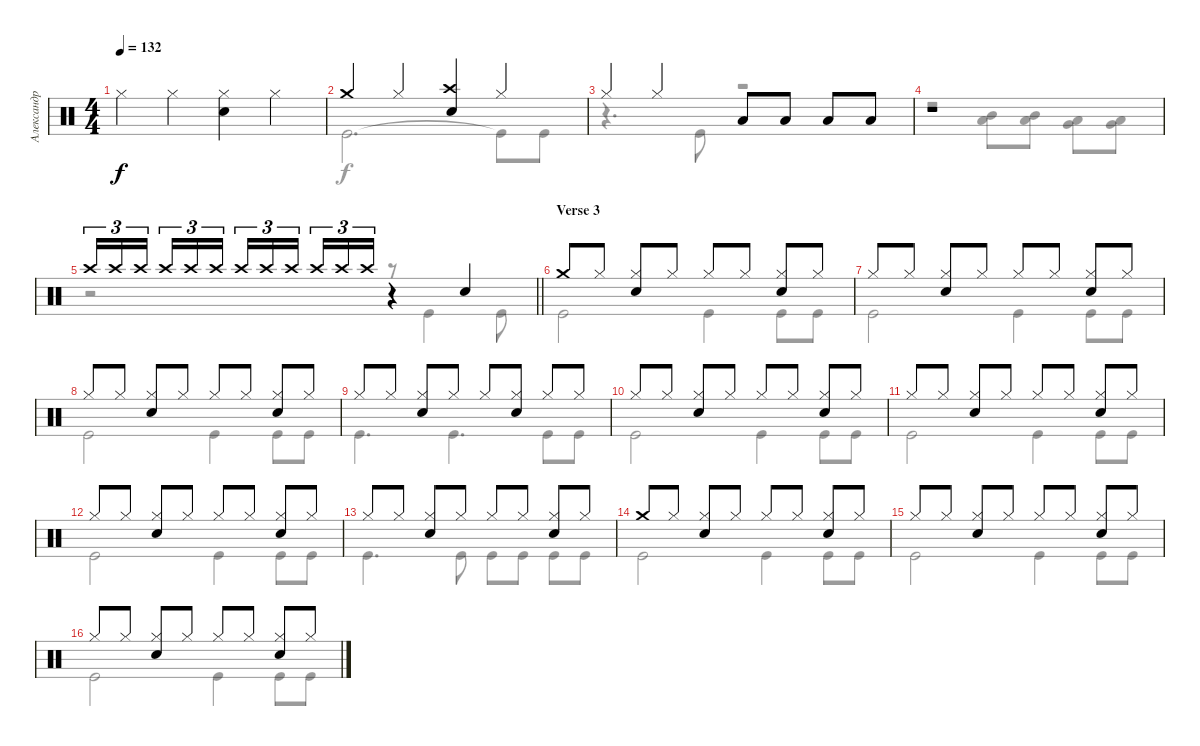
\track ("Александр Манякин" "Александр ") {instrument percussion}
\staff {score}
\articulation defaults
\voice
\ts (4 4)
\tempo 132
\clef neutral
\ks c "Hi-Hat (closed)".4{dy f} "Hi-Hat (closed)".4
("Hi-Hat (closed)" "Snare (hit) 2").4 "Hi-Hat (closed)".4 |
"Crash medium (hit)".4 "Hi-Hat (closed)".4 ("Crash high (hit)" "Snare (hit) 2").4 "Hi-Hat (closed)".4 |
"Hi-Hat (closed)".4 "Hi-Hat (closed)".4 "Low Tom (hit)".8 "Low Tom (hit)".8 "Low Tom (hit)".8 "Low Tom (hit)".8 |
r.1 |
\barLineRight lightlight "Crash high (hit)".16{tu (3 2)} "Crash high (hit)".16{tu (3 2)} "Crash high (hit)".16{tu (3 2) beam splitsecondary} "Crash high (hit)".16{tu (3 2)} "Crash high (hit)".16{tu (3 2)} "Crash high (hit)".16{tu (3 2)} "Crash high (hit)".16{tu (3 2)} "Crash high (hit)".16{tu (3 2)} "Crash high (hit)".16{tu (3 2) beam splitsecondary} "Crash high (hit)".16{tu (3 2)} "Crash high (hit)".16{tu (3 2)} "Crash high (hit)".16{tu (3 2)}
r.4 "Snare (hit) 2".4 |
\section ("" "Verse 3")
"Crash medium (hit)".8 "Hi-Hat (closed)".8 ("Hi-Hat (closed)" "Snare (hit) 2").8 "Hi-Hat (closed)".8 "Hi-Hat (closed)".8 "Hi-Hat (closed)".8 ("Hi-Hat (closed)" "Snare (hit) 2").8 "Hi-Hat (closed)".8 |
"Hi-Hat (closed)".8 "Hi-Hat (closed)".8 ("Hi-Hat (closed)" "Snare (hit) 2").8 "Hi-Hat (closed)".8 "Hi-Hat (closed)".8 "Hi-Hat (closed)".8 ("Hi-Hat (closed)" "Snare (hit) 2").8 "Hi-Hat (closed)".8 |
"Hi-Hat (closed)".8 "Hi-Hat (closed)".8 ("Hi-Hat (closed)" "Snare (hit) 2").8 "Hi-Hat (closed)".8 "Hi-Hat (closed)".8 "Hi-Hat (closed)".8 ("Hi-Hat (closed)" "Snare (hit) 2").8 "Hi-Hat (closed)".8 |
"Hi-Hat (closed)".8 "Hi-Hat (closed)".8 ("Hi-Hat (closed)" "Snare (hit) 2").8 "Hi-Hat (closed)".8 "Hi-Hat (closed)".8 ("Hi-Hat (closed)" "Snare (hit) 2").8 "Hi-Hat (closed)".8 "Hi-Hat (closed)".8 |
"Hi-Hat (closed)".8 "Hi-Hat (closed)".8 ("Hi-Hat (closed)" "Snare (hit) 2").8 "Hi-Hat (closed)".8 "Hi-Hat (closed)".8 "Hi-Hat (closed)".8 ("Hi-Hat (closed)" "Snare (hit) 2").8 "Hi-Hat (closed)".8 |
"Hi-Hat (closed)".8 "Hi-Hat (closed)".8 ("Hi-Hat (closed)" "Snare (hit) 2").8 "Hi-Hat (closed)".8 "Hi-Hat (closed)".8 "Hi-Hat (closed)".8 ("Hi-Hat (closed)" "Snare (hit) 2").8 "Hi-Hat (closed)".8 |
"Hi-Hat (closed)".8 "Hi-Hat (closed)".8 ("Hi-Hat (closed)" "Snare (hit) 2").8 "Hi-Hat (closed)".8 "Hi-Hat (closed)".8 "Hi-Hat (closed)".8 ("Hi-Hat (closed)" "Snare (hit) 2").8 "Hi-Hat (closed)".8 |
"Hi-Hat (closed)".8 "Hi-Hat (closed)".8 ("Hi-Hat (closed)" "Snare (hit) 2").8 "Hi-Hat (closed)".8 "Hi-Hat (closed)".8 "Hi-Hat (closed)".8 ("Hi-Hat (closed)" "Snare (hit) 2").8 "Hi-Hat (closed)".8 |
"Crash medium (hit)".8 "Hi-Hat (closed)".8 ("Hi-Hat (closed)" "Snare (hit) 2").8 "Hi-Hat (closed)".8 "Hi-Hat (closed)".8 "Hi-Hat (closed)".8 ("Hi-Hat (closed)" "Snare (hit) 2").8 "Hi-Hat (closed)".8 |
"Hi-Hat (closed)".8 "Hi-Hat (closed)".8 ("Hi-Hat (closed)" "Snare (hit) 2").8 "Hi-Hat (closed)".8 "Hi-Hat (closed)".8 "Hi-Hat (closed)".8 ("Hi-Hat (closed)" "Snare (hit) 2").8 "Hi-Hat (closed)".8 |
"Hi-Hat (closed)".8 "Hi-Hat (closed)".8 ("Hi-Hat (closed)" "Snare (hit) 2").8 "Hi-Hat (closed)".8 "Hi-Hat (closed)".8 "Hi-Hat (closed)".8 ("Hi-Hat (closed)" "Snare (hit) 2").8 "Hi-Hat (closed)".8
\voice
\clef neutral
\ottava regular
\simile none
\ks c
|
"Kick (hit)".2{d} "Kick (hit)"{t}.8 "Kick (hit)".8 |
r.4{d} "Kick (hit)".8 r.2 |
r.2 ("Low Tom (hit)" "Mid Tom (hit)").8 ("Low Tom (hit)" "Mid Tom (hit)").8 ("Low Tom (hit)" "Very Low Tom (hit)").8 ("Low Tom (hit)" "Very Low Tom (hit)").8 |
\barLineRight lightlight
r.2 r.8 "Kick (hit)".4 "Kick (hit)".8 |
"Kick (hit)".2 "Kick (hit)".4 "Kick (hit)".8 "Kick (hit)".8 |
"Kick (hit)".2 "Kick (hit)".4 "Kick (hit)".8 "Kick (hit)".8 |
"Kick (hit)".2 "Kick (hit)".4 "Kick (hit)".8 "Kick (hit)".8 |
"Kick (hit)".4{d} "Kick (hit)".4{d} "Kick (hit)".8 "Kick (hit)".8 |
"Kick (hit)".2 "Kick (hit)".4 "Kick (hit)".8 "Kick (hit)".8 |
"Kick (hit)".2 "Kick (hit)".4 "Kick (hit)".8 "Kick (hit)".8 |
"Kick (hit)".2 "Kick (hit)".4 "Kick (hit)".8 "Kick (hit)".8 |
"Kick (hit)".4{d} "Kick (hit)".8 "Kick (hit)".8 "Kick (hit)".8 "Kick (hit)".8 "Kick (hit)".8 |
"Kick (hit)".2 "Kick (hit)".4 "Kick (hit)".8 "Kick (hit)".8 |
"Kick (hit)".2 "Kick (hit)".4 "Kick (hit)".8 "Kick (hit)".8 |
"Kick (hit)".2 "Kick (hit)".4 "Kick (hit)".8 "Kick (hit)".8
